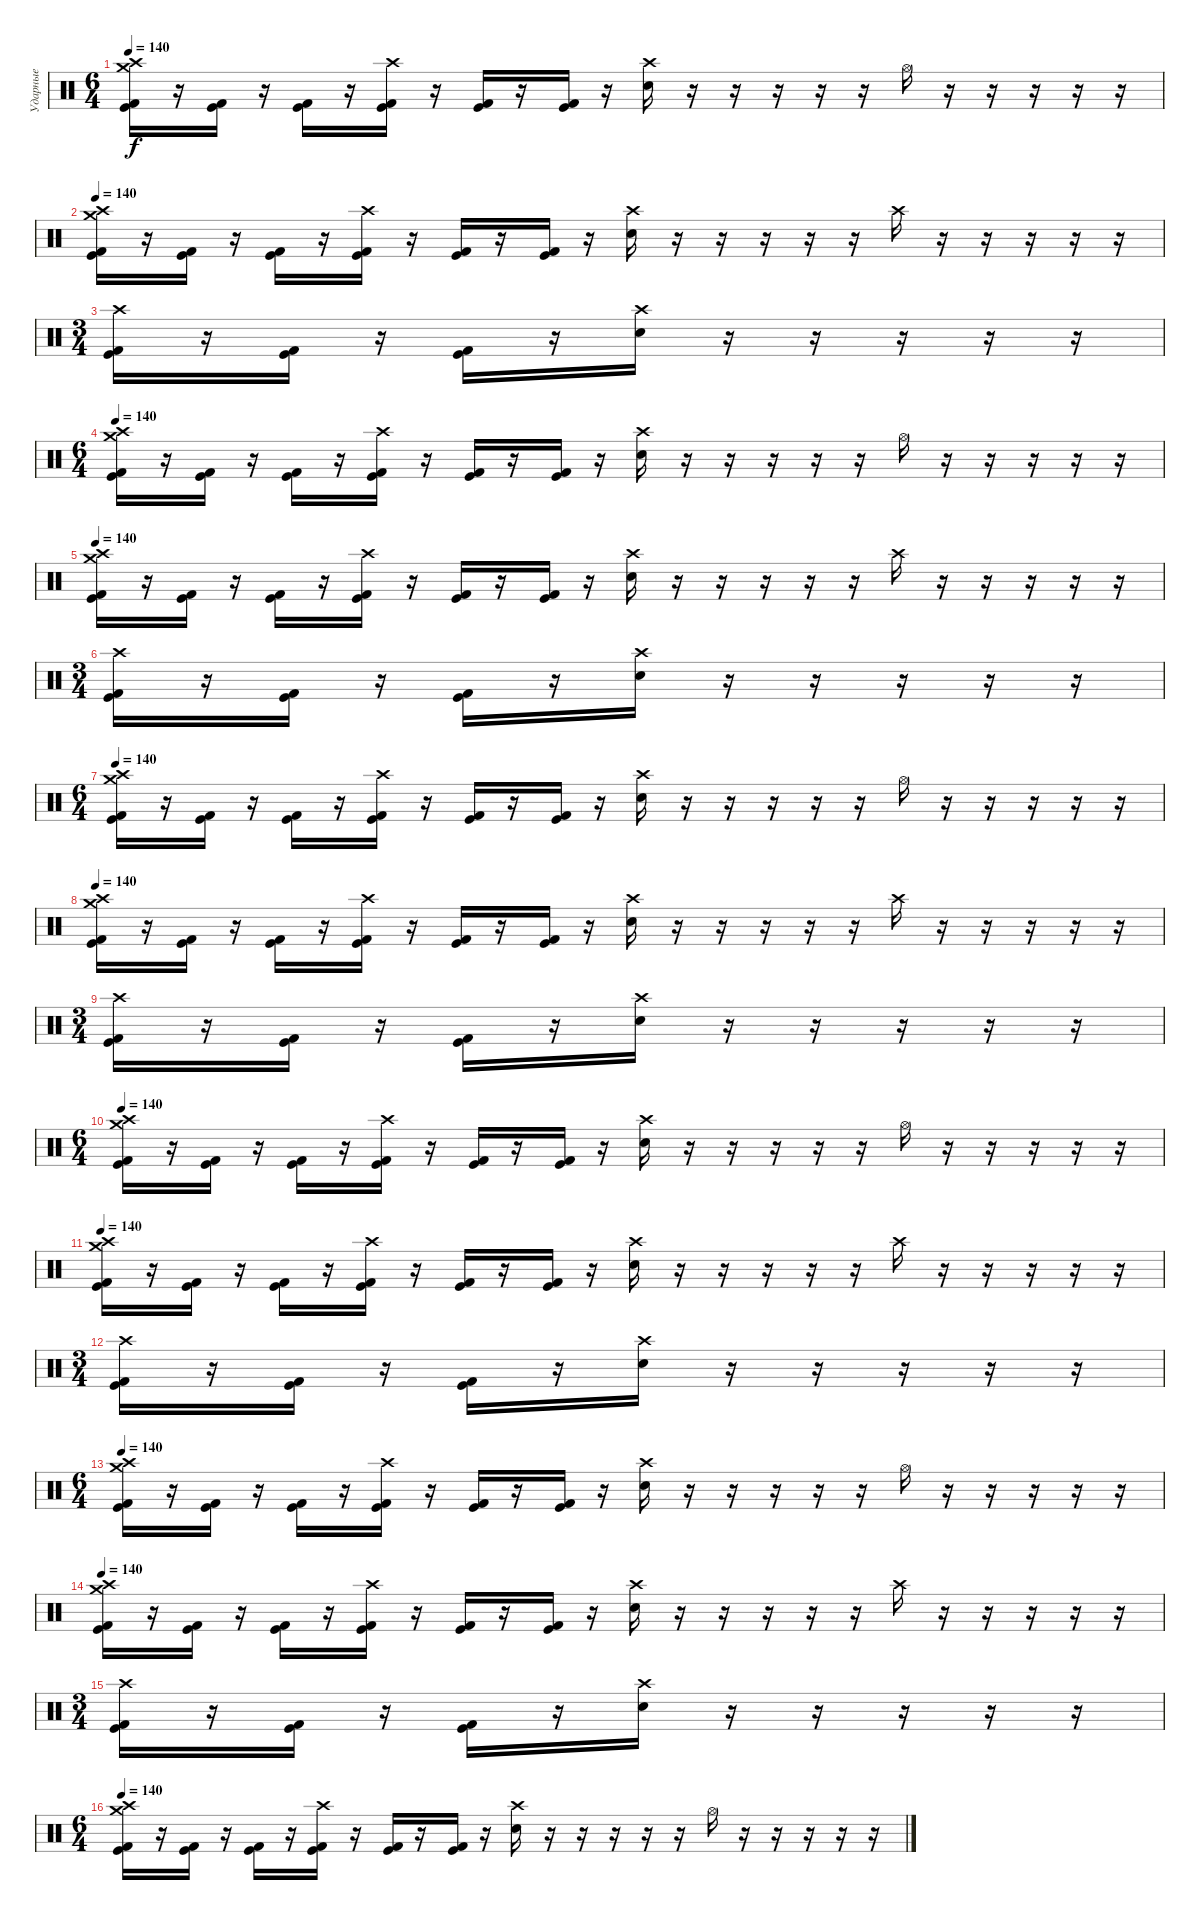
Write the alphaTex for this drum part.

\track ("Ударные" "Ударные") {instrument percussion}
\staff {score}
\articulation defaults
\ts (6 4)
\tempo 140
\clef neutral
\ks c
("Crash medium (hit)" "Crash high (hit)" "Kick (hit)" "Kick (hit) 2").16{dy f} r.16 ("Kick (hit)" "Kick (hit) 2").16 r.16 ("Kick (hit)" "Kick (hit) 2").16 r.16 ("Crash high (hit)" "Kick (hit)" "Kick (hit) 2").16 r.16 ("Kick (hit)" "Kick (hit) 2").16 r.16 ("Kick (hit)" "Kick (hit) 2").16 r.16 ("Crash high (hit)" "Electric Snare (hit)").16 r.16 r.16 r.16 r.16 r.16 "Hi-Hat (open)".16 r.16 r.16 r.16 r.16 r.16 |
\section ("" "")
\tempo 140
("Crash medium (hit)" "Crash high (hit)" "Kick (hit)" "Kick (hit) 2").16 r.16 ("Kick (hit)" "Kick (hit) 2").16 r.16 ("Kick (hit)" "Kick (hit) 2").16 r.16 ("Crash high (hit)" "Kick (hit)" "Kick (hit) 2").16 r.16 ("Kick (hit)" "Kick (hit) 2").16 r.16 ("Kick (hit)" "Kick (hit) 2").16 r.16 ("Crash high (hit)" "Electric Snare (hit)").16 r.16 r.16 r.16 r.16 r.16 "Crash high (hit)".16 r.16 r.16 r.16 r.16 r.16 |
\ts (3 4)
("Crash high (hit)" "Kick (hit)" "Kick (hit) 2").16 r.16 ("Kick (hit)" "Kick (hit) 2").16 r.16 ("Kick (hit)" "Kick (hit) 2").16 r.16 ("Crash high (hit)" "Electric Snare (hit)").16 r.16 r.16 r.16 r.16 r.16 |
\ts (6 4)
\tempo 140
("Crash medium (hit)" "Crash high (hit)" "Kick (hit)" "Kick (hit) 2").16 r.16 ("Kick (hit)" "Kick (hit) 2").16 r.16 ("Kick (hit)" "Kick (hit) 2").16 r.16 ("Crash high (hit)" "Kick (hit)" "Kick (hit) 2").16 r.16 ("Kick (hit)" "Kick (hit) 2").16 r.16 ("Kick (hit)" "Kick (hit) 2").16 r.16 ("Crash high (hit)" "Electric Snare (hit)").16 r.16 r.16 r.16 r.16 r.16 "Hi-Hat (open)".16 r.16 r.16 r.16 r.16 r.16 |
\tempo 140
("Crash medium (hit)" "Crash high (hit)" "Kick (hit)" "Kick (hit) 2").16 r.16 ("Kick (hit)" "Kick (hit) 2").16 r.16 ("Kick (hit)" "Kick (hit) 2").16 r.16 ("Crash high (hit)" "Kick (hit)" "Kick (hit) 2").16 r.16 ("Kick (hit)" "Kick (hit) 2").16 r.16 ("Kick (hit)" "Kick (hit) 2").16 r.16 ("Crash high (hit)" "Electric Snare (hit)").16 r.16 r.16 r.16 r.16 r.16 "Crash high (hit)".16 r.16 r.16 r.16 r.16 r.16 |
\ts (3 4)
("Crash high (hit)" "Kick (hit)" "Kick (hit) 2").16 r.16 ("Kick (hit)" "Kick (hit) 2").16 r.16 ("Kick (hit)" "Kick (hit) 2").16 r.16 ("Crash high (hit)" "Electric Snare (hit)").16 r.16 r.16 r.16 r.16 r.16 |
\ts (6 4)
\tempo 140
("Crash medium (hit)" "Crash high (hit)" "Kick (hit)" "Kick (hit) 2").16 r.16 ("Kick (hit)" "Kick (hit) 2").16 r.16 ("Kick (hit)" "Kick (hit) 2").16 r.16 ("Crash high (hit)" "Kick (hit)" "Kick (hit) 2").16 r.16 ("Kick (hit)" "Kick (hit) 2").16 r.16 ("Kick (hit)" "Kick (hit) 2").16 r.16 ("Crash high (hit)" "Electric Snare (hit)").16 r.16 r.16 r.16 r.16 r.16 "Hi-Hat (open)".16 r.16 r.16 r.16 r.16 r.16 |
\section ("" "")
\tempo 140
("Crash medium (hit)" "Crash high (hit)" "Kick (hit)" "Kick (hit) 2").16 r.16 ("Kick (hit)" "Kick (hit) 2").16 r.16 ("Kick (hit)" "Kick (hit) 2").16 r.16 ("Crash high (hit)" "Kick (hit)" "Kick (hit) 2").16 r.16 ("Kick (hit)" "Kick (hit) 2").16 r.16 ("Kick (hit)" "Kick (hit) 2").16 r.16 ("Crash high (hit)" "Electric Snare (hit)").16 r.16 r.16 r.16 r.16 r.16 "Crash high (hit)".16 r.16 r.16 r.16 r.16 r.16 |
\ts (3 4)
("Crash high (hit)" "Kick (hit)" "Kick (hit) 2").16 r.16 ("Kick (hit)" "Kick (hit) 2").16 r.16 ("Kick (hit)" "Kick (hit) 2").16 r.16 ("Crash high (hit)" "Electric Snare (hit)").16 r.16 r.16 r.16 r.16 r.16 |
\ts (6 4)
\tempo 140
("Crash medium (hit)" "Crash high (hit)" "Kick (hit)" "Kick (hit) 2").16 r.16 ("Kick (hit)" "Kick (hit) 2").16 r.16 ("Kick (hit)" "Kick (hit) 2").16 r.16 ("Crash high (hit)" "Kick (hit)" "Kick (hit) 2").16 r.16 ("Kick (hit)" "Kick (hit) 2").16 r.16 ("Kick (hit)" "Kick (hit) 2").16 r.16 ("Crash high (hit)" "Electric Snare (hit)").16 r.16 r.16 r.16 r.16 r.16 "Hi-Hat (open)".16 r.16 r.16 r.16 r.16 r.16 |
\tempo 140
("Crash medium (hit)" "Crash high (hit)" "Kick (hit)" "Kick (hit) 2").16 r.16 ("Kick (hit)" "Kick (hit) 2").16 r.16 ("Kick (hit)" "Kick (hit) 2").16 r.16 ("Crash high (hit)" "Kick (hit)" "Kick (hit) 2").16 r.16 ("Kick (hit)" "Kick (hit) 2").16 r.16 ("Kick (hit)" "Kick (hit) 2").16 r.16 ("Crash high (hit)" "Electric Snare (hit)").16 r.16 r.16 r.16 r.16 r.16 "Crash high (hit)".16 r.16 r.16 r.16 r.16 r.16 |
\ts (3 4)
("Crash high (hit)" "Kick (hit)" "Kick (hit) 2").16 r.16 ("Kick (hit)" "Kick (hit) 2").16 r.16 ("Kick (hit)" "Kick (hit) 2").16 r.16 ("Crash high (hit)" "Electric Snare (hit)").16 r.16 r.16 r.16 r.16 r.16 |
\ts (6 4)
\tempo 140
("Crash medium (hit)" "Crash high (hit)" "Kick (hit)" "Kick (hit) 2").16 r.16 ("Kick (hit)" "Kick (hit) 2").16 r.16 ("Kick (hit)" "Kick (hit) 2").16 r.16 ("Crash high (hit)" "Kick (hit)" "Kick (hit) 2").16 r.16 ("Kick (hit)" "Kick (hit) 2").16 r.16 ("Kick (hit)" "Kick (hit) 2").16 r.16 ("Crash high (hit)" "Electric Snare (hit)").16 r.16 r.16 r.16 r.16 r.16 "Hi-Hat (open)".16 r.16 r.16 r.16 r.16 r.16 |
\tempo 140
("Crash medium (hit)" "Crash high (hit)" "Kick (hit)" "Kick (hit) 2").16 r.16 ("Kick (hit)" "Kick (hit) 2").16 r.16 ("Kick (hit)" "Kick (hit) 2").16 r.16 ("Crash high (hit)" "Kick (hit)" "Kick (hit) 2").16 r.16 ("Kick (hit)" "Kick (hit) 2").16 r.16 ("Kick (hit)" "Kick (hit) 2").16 r.16 ("Crash high (hit)" "Electric Snare (hit)").16 r.16 r.16 r.16 r.16 r.16 "Crash high (hit)".16 r.16 r.16 r.16 r.16 r.16 |
\ts (3 4)
("Crash high (hit)" "Kick (hit)" "Kick (hit) 2").16 r.16 ("Kick (hit)" "Kick (hit) 2").16 r.16 ("Kick (hit)" "Kick (hit) 2").16 r.16 ("Crash high (hit)" "Electric Snare (hit)").16 r.16 r.16 r.16 r.16 r.16 |
\ts (6 4)
\tempo 140
("Crash medium (hit)" "Crash high (hit)" "Kick (hit)" "Kick (hit) 2").16 r.16 ("Kick (hit)" "Kick (hit) 2").16 r.16 ("Kick (hit)" "Kick (hit) 2").16 r.16 ("Crash high (hit)" "Kick (hit)" "Kick (hit) 2").16 r.16 ("Kick (hit)" "Kick (hit) 2").16 r.16 ("Kick (hit)" "Kick (hit) 2").16 r.16 ("Crash high (hit)" "Electric Snare (hit)").16 r.16 r.16 r.16 r.16 r.16 "Hi-Hat (open)".16 r.16 r.16 r.16 r.16 r.16
